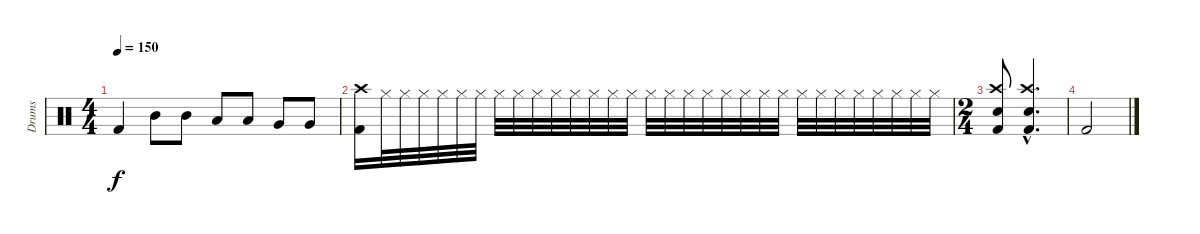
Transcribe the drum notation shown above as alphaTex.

\track ("Drums" "Drums") {instrument percussion}
\staff {score}
\articulation defaults
\ts (4 4)
\tempo 150
\clef neutral
\ks c "Kick (hit) 2".4{dy f} "Mid Tom (hit)".8 "Mid Tom (hit)".8 "Low Tom (hit)".8 "Low Tom (hit)".8 "Very Low Tom (hit)".8 "Very Low Tom (hit)".8
|
("Crash high (hit)" "Kick (hit) 2").16 "Hi-Hat (closed)".32 "Hi-Hat (closed)".32 "Hi-Hat (closed)".32 "Hi-Hat (closed)".32 "Hi-Hat (closed)".32 "Hi-Hat (closed)".32 "Hi-Hat (closed)".32 "Hi-Hat (closed)".32 "Hi-Hat (closed)".32 "Hi-Hat (closed)".32 "Hi-Hat (closed)".32 "Hi-Hat (closed)".32 "Hi-Hat (closed)".32 "Hi-Hat (closed)".32 "Hi-Hat (closed)".32 "Hi-Hat (closed)".32 "Hi-Hat (closed)".32 "Hi-Hat (closed)".32 "Hi-Hat (closed)".32 "Hi-Hat (closed)".32 "Hi-Hat (closed)".32 "Hi-Hat (closed)".32 "Hi-Hat (closed)".32 "Hi-Hat (closed)".32 "Hi-Hat (closed)".32 "Hi-Hat (closed)".32 "Hi-Hat (closed)".32 "Hi-Hat (closed)".32 "Hi-Hat (closed)".32 "Hi-Hat (closed)".32 |
\ts (2 4)
("Crash high (hit)" "Electric Snare (hit)" "Kick (hit) 2").8 ("Crash high (hit)"{hac} "Electric Snare (hit)"{hac} "Kick (hit) 2"{hac}).4{d} |
"Kick (hit) 2".2
